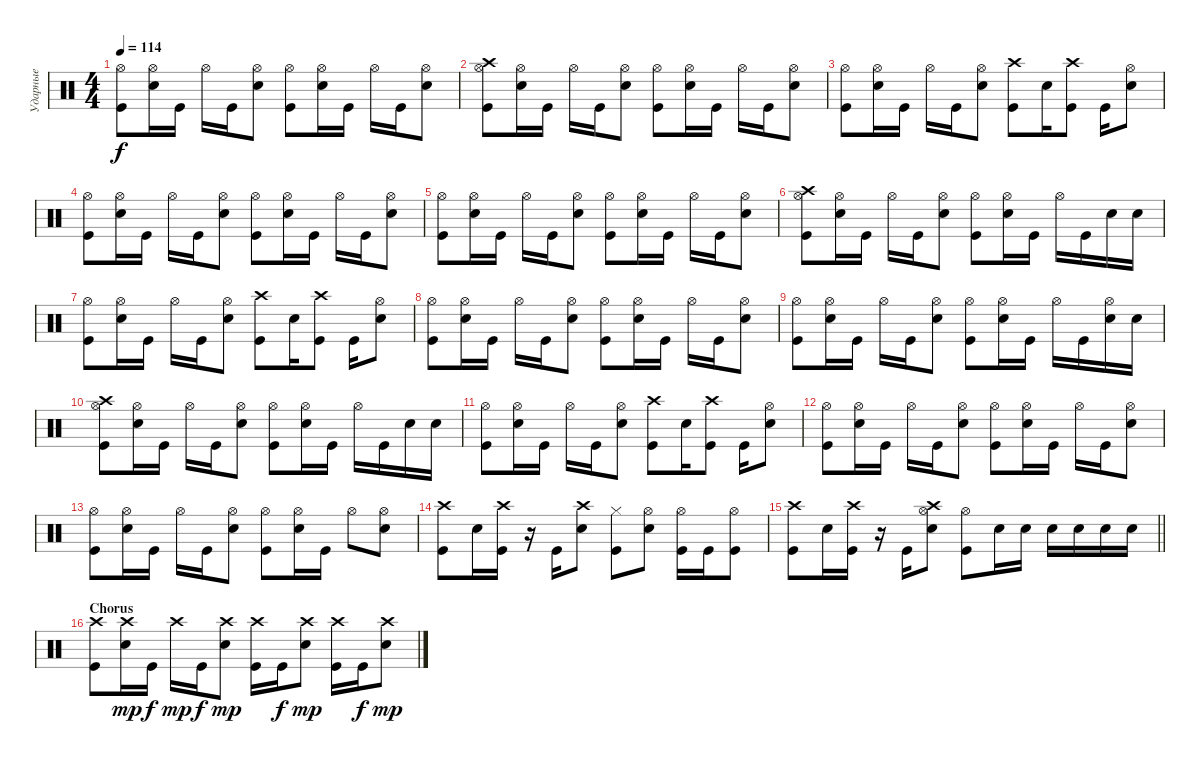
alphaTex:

\track ("Ударные" "Ударные") {instrument percussion}
\staff {score}
\articulation defaults
\ts (4 4)
\tempo 114
\clef neutral
\ks aminor
("Hi-Hat (open)" "Kick (hit)").8{dy f} ("Hi-Hat (open)" "Snare (hit) 2").16 "Kick (hit)".16 "Hi-Hat (open)".16 "Kick (hit)".16 ("Hi-Hat (open)" "Snare (hit) 2").8 ("Kick (hit)" "Hi-Hat (open)").8 ("Hi-Hat (open)" "Snare (hit) 2").16 "Kick (hit)".16 "Hi-Hat (open)".16 "Kick (hit)".16 ("Hi-Hat (open)" "Snare (hit) 2").8 |
("Hi-Hat (open)" "Crash high (hit)" "Kick (hit)").8 ("Hi-Hat (open)" "Snare (hit) 2").16 "Kick (hit)".16 "Hi-Hat (open)".16 "Kick (hit)".16 ("Hi-Hat (open)" "Snare (hit) 2").8 ("Kick (hit)" "Hi-Hat (open)").8 ("Hi-Hat (open)" "Snare (hit) 2").16 "Kick (hit)".16 "Hi-Hat (open)".16 "Kick (hit)".16 ("Hi-Hat (open)" "Snare (hit) 2").8 |
("Kick (hit)" "Hi-Hat (open)").8 ("Hi-Hat (open)" "Snare (hit) 2").16 "Kick (hit)".16 "Hi-Hat (open)".16 "Kick (hit)".16 ("Hi-Hat (open)" "Snare (hit) 2").8 ("Crash high (hit)" "Kick (hit)").8 "Snare (hit) 2".16 ("Crash high (hit)" "Kick (hit)").8 "Kick (hit)".16 ("Hi-Hat (open)" "Snare (hit) 2").8 |
("Hi-Hat (open)" "Kick (hit)").8 ("Hi-Hat (open)" "Snare (hit) 2").16 "Kick (hit)".16 "Hi-Hat (open)".16 "Kick (hit)".16 ("Hi-Hat (open)" "Snare (hit) 2").8 ("Kick (hit)" "Hi-Hat (open)").8 ("Hi-Hat (open)" "Snare (hit) 2").16 "Kick (hit)".16 "Hi-Hat (open)".16 "Kick (hit)".16 ("Hi-Hat (open)" "Snare (hit) 2").8 |
("Hi-Hat (open)" "Kick (hit)").8 ("Hi-Hat (open)" "Snare (hit) 2").16 "Kick (hit)".16 "Hi-Hat (open)".16 "Kick (hit)".16 ("Hi-Hat (open)" "Snare (hit) 2").8 ("Kick (hit)" "Hi-Hat (open)").8 ("Hi-Hat (open)" "Snare (hit) 2").16 "Kick (hit)".16 "Hi-Hat (open)".16 "Kick (hit)".16 ("Hi-Hat (open)" "Snare (hit) 2").8 |
("Hi-Hat (open)" "Crash high (hit)" "Kick (hit)").8 ("Hi-Hat (open)" "Snare (hit) 2").16 "Kick (hit)".16 "Hi-Hat (open)".16 "Kick (hit)".16 ("Hi-Hat (open)" "Snare (hit) 2").8 ("Kick (hit)" "Hi-Hat (open)").8 ("Hi-Hat (open)" "Snare (hit) 2").16 "Kick (hit)".16 "Hi-Hat (open)".16 "Kick (hit)".16 "Snare (hit) 2".16 "Snare (hit) 2".16 |
("Kick (hit)" "Hi-Hat (open)").8 ("Hi-Hat (open)" "Snare (hit) 2").16 "Kick (hit)".16 "Hi-Hat (open)".16 "Kick (hit)".16 ("Hi-Hat (open)" "Snare (hit) 2").8 ("Crash high (hit)" "Kick (hit)").8 "Snare (hit) 2".16 ("Crash high (hit)" "Kick (hit)").8 "Kick (hit)".16 ("Hi-Hat (open)" "Snare (hit) 2").8 |
("Hi-Hat (open)" "Kick (hit)").8 ("Hi-Hat (open)" "Snare (hit) 2").16 "Kick (hit)".16 "Hi-Hat (open)".16 "Kick (hit)".16 ("Hi-Hat (open)" "Snare (hit) 2").8 ("Kick (hit)" "Hi-Hat (open)").8 ("Hi-Hat (open)" "Snare (hit) 2").16 "Kick (hit)".16 "Hi-Hat (open)".16 "Kick (hit)".16 ("Hi-Hat (open)" "Snare (hit) 2").8 |
("Hi-Hat (open)" "Kick (hit)").8 ("Hi-Hat (open)" "Snare (hit) 2").16 "Kick (hit)".16 "Hi-Hat (open)".16 "Kick (hit)".16 ("Hi-Hat (open)" "Snare (hit) 2").8 ("Kick (hit)" "Hi-Hat (open)").8 ("Hi-Hat (open)" "Snare (hit) 2").16 "Kick (hit)".16 "Hi-Hat (open)".16 "Kick (hit)".16 ("Hi-Hat (open)" "Snare (hit) 2").16 "Snare (hit) 2".16 |
("Hi-Hat (open)" "Crash high (hit)" "Kick (hit)").8 ("Hi-Hat (open)" "Snare (hit) 2").16 "Kick (hit)".16 "Hi-Hat (open)".16 "Kick (hit)".16 ("Hi-Hat (open)" "Snare (hit) 2").8 ("Kick (hit)" "Hi-Hat (open)").8 ("Hi-Hat (open)" "Snare (hit) 2").16 "Kick (hit)".16 "Hi-Hat (open)".16 "Kick (hit)".16 "Snare (hit) 2".16 "Snare (hit) 2".16 |
("Kick (hit)" "Hi-Hat (open)").8 ("Hi-Hat (open)" "Snare (hit) 2").16 "Kick (hit)".16 "Hi-Hat (open)".16 "Kick (hit)".16 ("Hi-Hat (open)" "Snare (hit) 2").8 ("Crash high (hit)" "Kick (hit)").8 "Snare (hit) 2".16 ("Crash high (hit)" "Kick (hit)").8 "Kick (hit)".16 ("Hi-Hat (open)" "Snare (hit) 2").8 |
("Hi-Hat (open)" "Kick (hit)").8 ("Hi-Hat (open)" "Snare (hit) 2").16 "Kick (hit)".16 "Hi-Hat (open)".16 "Kick (hit)".16 ("Hi-Hat (open)" "Snare (hit) 2").8 ("Kick (hit)" "Hi-Hat (open)").8 ("Hi-Hat (open)" "Snare (hit) 2").16 "Kick (hit)".16 "Hi-Hat (open)".16 "Kick (hit)".16 ("Hi-Hat (open)" "Snare (hit) 2").8 |
("Hi-Hat (open)" "Kick (hit)").8 ("Hi-Hat (open)" "Snare (hit) 2").16 "Kick (hit)".16 "Hi-Hat (open)".16 "Kick (hit)".16 ("Hi-Hat (open)" "Snare (hit) 2").8 ("Kick (hit)" "Hi-Hat (open)").8 ("Hi-Hat (open)" "Snare (hit) 2").16 "Kick (hit)".16 "Hi-Hat (open)".8 ("Hi-Hat (open)" "Snare (hit) 2").8 |
("Crash high (hit)" "Kick (hit)").8 "Snare (hit) 2".16 ("Kick (hit)" "Crash high (hit)").16 r.16 "Kick (hit)".16 ("Crash high (hit)" "Snare (hit) 2").8 ("Kick (hit)" "Hi-Hat (closed)").8 ("Hi-Hat (open)" "Snare (hit) 2").8 ("Kick (hit)" "Hi-Hat (open)").16 "Kick (hit)".16 ("Hi-Hat (open)" "Kick (hit)").8 |
\barLineRight lightlight
("Crash high (hit)" "Kick (hit)").8 "Snare (hit) 2".16 ("Kick (hit)" "Crash high (hit)").16 r.16 "Kick (hit)".16 ("Crash high (hit)" "Hi-Hat (open)" "Snare (hit) 2").8 ("Kick (hit)" "Hi-Hat (open)").8 "Snare (hit) 2".16 "Snare (hit) 2".16 "Snare (hit) 2".16 "Snare (hit) 2".16 "Snare (hit) 2".16 "Snare (hit) 2".16 |
\section ("" "Chorus")
("Crash high (hit)" "Kick (hit)").8 ("Crash high (hit)" "Snare (hit) 2").16{dy mp} "Kick (hit)".16{dy f} "Crash high (hit)".16{dy mp} "Kick (hit)".16{dy f} ("Crash high (hit)" "Snare (hit) 2").8{dy mp} ("Kick (hit)" "Crash high (hit)").16 "Kick (hit)".16{dy f} ("Crash high (hit)" "Snare (hit) 2").8{dy mp} ("Kick (hit)" "Crash high (hit)").16 "Kick (hit)".16{dy f} ("Crash high (hit)" "Snare (hit) 2").8{dy mp}
